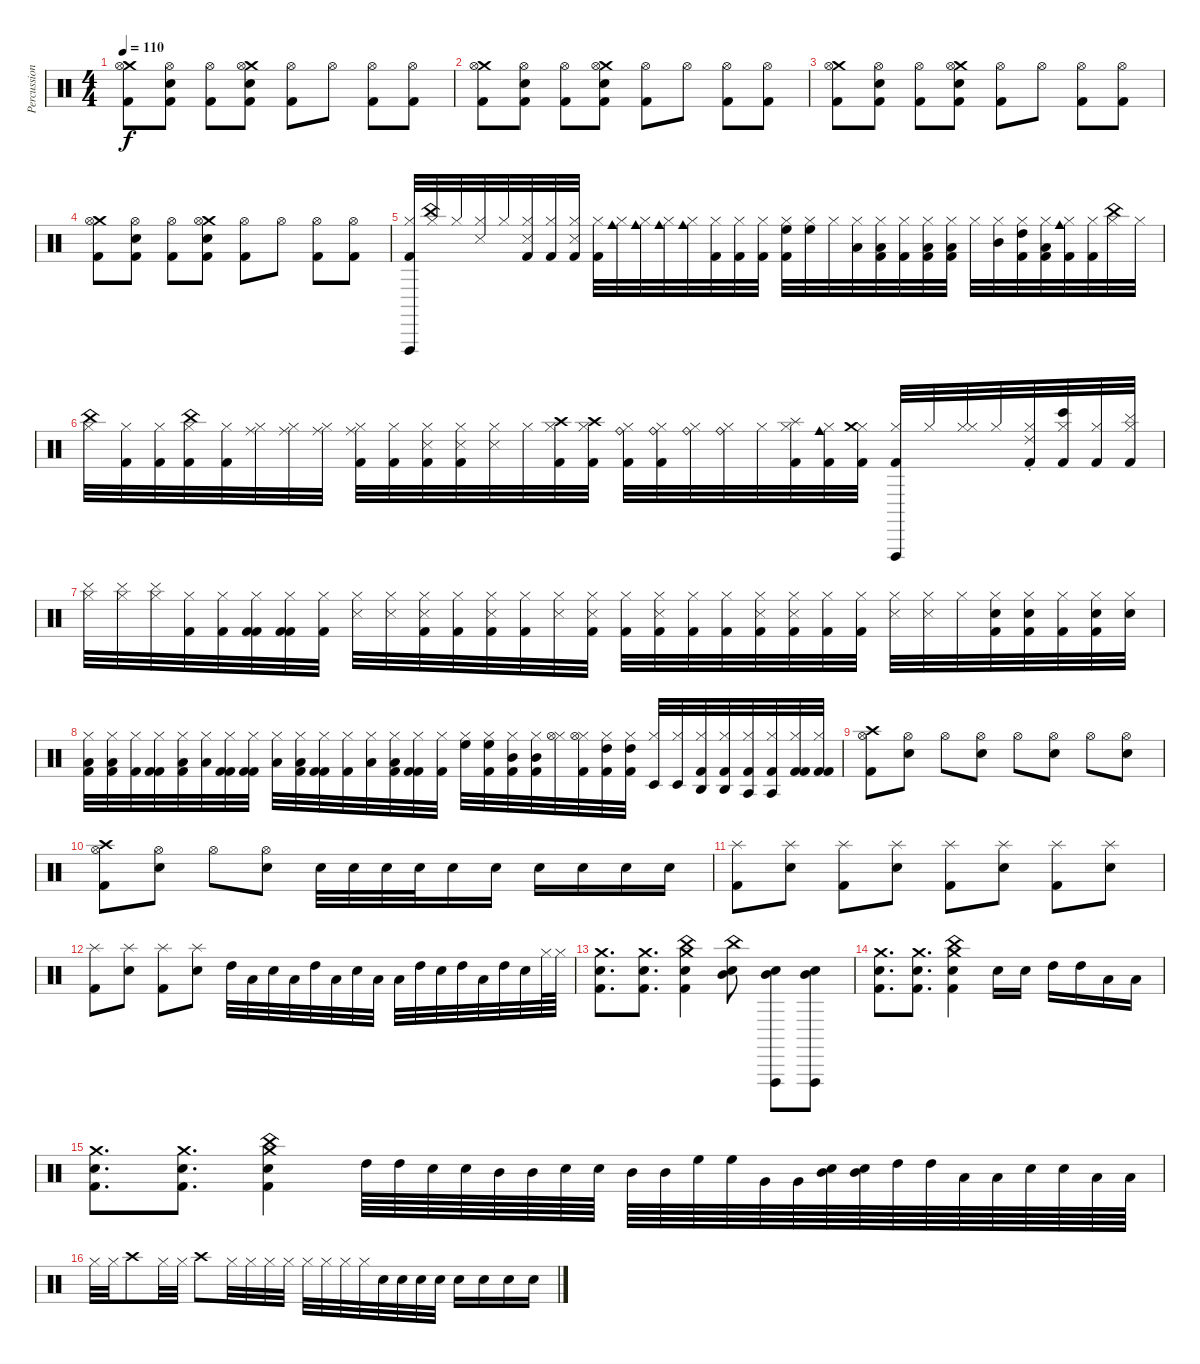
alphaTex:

\track ("Percussion" "Percussion") {instrument percussion}
\staff {score}
\articulation defaults
\ts (4 4)
\tempo 110
\clef neutral
\ks c
("Crash medium (hit)" "Hi-Hat (open)" "Kick (hit) 2").8{dy f} ("Hi-Hat (open)" "Snare (hit) 2" "Kick (hit) 2").8 ("Hi-Hat (open)" "Kick (hit) 2").8 ("Crash medium (hit)" "Hi-Hat (open)" "Snare (hit) 2" "Kick (hit) 2").8 ("Hi-Hat (open)" "Kick (hit) 2").8 "Hi-Hat (open)".8 ("Hi-Hat (open)" "Kick (hit) 2").8 ("Hi-Hat (open)" "Kick (hit) 2").8 |
("Crash medium (hit)" "Hi-Hat (open)" "Kick (hit) 2").8 ("Hi-Hat (open)" "Snare (hit) 2" "Kick (hit) 2").8 ("Hi-Hat (open)" "Kick (hit) 2").8 ("Crash medium (hit)" "Hi-Hat (open)" "Snare (hit) 2" "Kick (hit) 2").8 ("Hi-Hat (open)" "Kick (hit) 2").8 "Hi-Hat (open)".8 ("Hi-Hat (open)" "Kick (hit) 2").8 ("Hi-Hat (open)" "Kick (hit) 2").8 |
("Crash medium (hit)" "Hi-Hat (open)" "Kick (hit) 2").8 ("Hi-Hat (open)" "Snare (hit) 2" "Kick (hit) 2").8 ("Hi-Hat (open)" "Kick (hit) 2").8 ("Crash medium (hit)" "Hi-Hat (open)" "Snare (hit) 2" "Kick (hit) 2").8 ("Hi-Hat (open)" "Kick (hit) 2").8 "Hi-Hat (open)".8 ("Hi-Hat (open)" "Kick (hit) 2").8 ("Hi-Hat (open)" "Kick (hit) 2").8 |
("Crash medium (hit)" "Hi-Hat (open)" "Kick (hit) 2").8 ("Hi-Hat (open)" "Snare (hit) 2" "Kick (hit) 2").8 ("Hi-Hat (open)" "Kick (hit) 2").8 ("Crash medium (hit)" "Hi-Hat (open)" "Snare (hit) 2" "Kick (hit) 2").8 ("Hi-Hat (open)" "Kick (hit) 2").8 "Hi-Hat (open)".8 ("Hi-Hat (open)" "Kick (hit) 2").8 ("Hi-Hat (open)" "Kick (hit) 2").8 |
("Hi-Hat (closed)" "Vibraslap (hit)" "Kick (hit) 2").32 ("Hi-Hat (closed)" "China (hit)").32 "Hi-Hat (closed)".32 ("Hi-Hat (closed)" "Snare (side stick) 3").32 "Hi-Hat (closed)".32 ("Hi-Hat (closed)" "Snare (side stick) 3" "Kick (hit) 2").32 ("Hi-Hat (closed)" "Kick (hit) 2").32 ("Hi-Hat (closed)" "Snare (side stick) 3" "Kick (hit) 2").32 ("Hi-Hat (closed)" "Kick (hit) 2").32 ("Hi-Hat (closed)" "Cowbell medium (hit)").32 ("Hi-Hat (closed)" "Cowbell medium (hit)").32 ("Hi-Hat (closed)" "Cowbell medium (hit)").32 ("Hi-Hat (closed)" "Cowbell medium (hit)").32 ("Hi-Hat (closed)" "Kick (hit) 2").32 ("Hi-Hat (closed)" "Kick (hit) 2").32 ("Hi-Hat (closed)" "Kick (hit) 2").32 ("Hi-Hat (closed)" "High Floor Tom (hit)" "Kick (hit) 2").32 ("Hi-Hat (closed)" "High Floor Tom (hit)").32 "Hi-Hat (closed)".32 ("Hi-Hat (closed)" "Low Tom (hit)").32 ("Hi-Hat (closed)" "Low Tom (hit)" "Kick (hit) 2").32 ("Hi-Hat (closed)" "Kick (hit) 2").32 ("Hi-Hat (closed)" "Low Floor Tom (hit)" "Kick (hit) 2").32 ("Hi-Hat (closed)" "Low Floor Tom (hit)" "Kick (hit) 2").32 "Hi-Hat (closed)".32 ("Hi-Hat (closed)" "Mid Tom (hit)").32 ("Hi-Hat (closed)" "High Tom (hit)" "Kick (hit) 2").32 ("Hi-Hat (closed)" "Low Floor Tom (hit)" "Kick (hit) 2").32 ("Hi-Hat (closed)" "Cowbell medium (hit)" "Kick (hit) 2").32 ("Hi-Hat (closed)" "Kick (hit) 2").32 ("Hi-Hat (closed)" "China (hit)").32 "Hi-Hat (closed)".32 |
("Hi-Hat (closed)" "China (hit)").32 ("Hi-Hat (closed)" "Kick (hit) 2").32 ("Hi-Hat (closed)" "Kick (hit) 2").32 ("Hi-Hat (closed)" "China (hit)" "Kick (hit) 2").32 ("Hi-Hat (closed)" "Kick (hit) 2").32 ("Hi-Hat (closed)" "Ride (middle)").32 ("Hi-Hat (closed)" "Ride (middle)").32 ("Hi-Hat (closed)" "Ride (middle)").32 ("Hi-Hat (closed)" "Ride (middle)" "Kick (hit) 2").32 ("Hi-Hat (closed)" "Kick (hit) 2").32 ("Hi-Hat (closed)" "Metronome (hit)" "Kick (hit) 2").32 ("Hi-Hat (closed)" "Metronome (hit)" "Kick (hit) 2").32 ("Hi-Hat (closed)" "Metronome (hit)").32 "Hi-Hat (closed)".32 ("Hi-Hat (closed)" "Crash high (hit)" "Kick (hit) 2").32 ("Hi-Hat (closed)" "Crash high (hit)" "Kick (hit) 2").32 ("Hi-Hat (closed)" "Ride (bell)" "Kick (hit) 2").32 ("Hi-Hat (closed)" "Ride (bell)" "Kick (hit) 2").32 ("Hi-Hat (closed)" "Ride (bell)").32 ("Hi-Hat (closed)" "Ride (bell)").32 "Hi-Hat (closed)".32 ("Hi-Hat (closed)" "Splash (hit)" "Kick (hit) 2").32 ("Hi-Hat (closed)" "Cowbell medium (hit)" "Kick (hit) 2").32 ("Hi-Hat (closed)" "Crash medium (hit)" "Kick (hit) 2").32 ("Hi-Hat (closed)" "Vibraslap (hit)" "Kick (hit) 2").32 "Hi-Hat (closed)".32 ("Hi-Hat (closed)" "Hi-Hat (closed)").32 "Hi-Hat (closed)".32 ("Hi-Hat (closed)" "Ride (choke) 2" "Kick (hit) 2").32 ("Hi-Hat (closed)" "Bongo High (hit)" "Kick (hit) 2").32 ("Hi-Hat (closed)" "Kick (hit) 2").32 ("Hi-Hat (closed)" "Cymbal (hit)" "Kick (hit) 2").32 |
("Hi-Hat (closed)" "Cymbal (hit)").32 ("Hi-Hat (closed)" "Cymbal (hit)").32 ("Hi-Hat (closed)" "Cymbal (hit)").32 ("Hi-Hat (closed)" "Kick (hit) 2").32 ("Hi-Hat (closed)" "Kick (hit) 2").32 ("Hi-Hat (closed)" "Kick (hit) 2" "Kick (hit) 2").32 ("Hi-Hat (closed)" "Kick (hit) 2" "Kick (hit) 2").32 ("Hi-Hat (closed)" "Kick (hit) 2").32 ("Hi-Hat (closed)" "Snare (side stick) 3").32 ("Hi-Hat (closed)" "Snare (side stick) 3").32 ("Hi-Hat (closed)" "Snare (side stick) 3" "Kick (hit) 2").32 ("Hi-Hat (closed)" "Kick (hit) 2").32 ("Hi-Hat (closed)" "Snare (side stick) 3" "Kick (hit) 2").32 ("Hi-Hat (closed)" "Kick (hit) 2").32 ("Hi-Hat (closed)" "Snare (side stick) 3").32 ("Hi-Hat (closed)" "Snare (side stick) 3" "Kick (hit) 2").32 ("Hi-Hat (closed)" "Kick (hit) 2").32 ("Hi-Hat (closed)" "Snare (side stick) 3" "Kick (hit) 2").32 ("Hi-Hat (closed)" "Kick (hit) 2").32 ("Hi-Hat (closed)" "Kick (hit) 2").32 ("Hi-Hat (closed)" "Snare (side stick) 3" "Kick (hit) 2").32 ("Hi-Hat (closed)" "Snare (side stick) 3" "Kick (hit) 2").32 ("Hi-Hat (closed)" "Kick (hit) 2").32 ("Hi-Hat (closed)" "Kick (hit) 2").32 ("Hi-Hat (closed)" "Snare (side stick) 3").32 ("Hi-Hat (closed)" "Snare (side stick) 3").32 "Hi-Hat (closed)".32 ("Hi-Hat (closed)" "Hand Clap (hit)" "Kick (hit) 2").32 ("Hi-Hat (closed)" "Hand Clap (hit)" "Kick (hit) 2").32 ("Hi-Hat (closed)" "Kick (hit) 2").32 ("Hi-Hat (closed)" "Hand Clap (hit)" "Kick (hit) 2").32 ("Hi-Hat (closed)" "Hand Clap (hit)").32 |
("Hi-Hat (closed)" "Low Tom (hit)" "Kick (hit) 2").32 ("Hi-Hat (closed)" "Low Tom (hit)" "Kick (hit) 2").32 ("Hi-Hat (closed)" "Kick (hit) 2").32 ("Hi-Hat (closed)" "Kick (hit) 2" "Kick (hit) 2").32 ("Hi-Hat (closed)" "Low Tom (hit)" "Kick (hit) 2").32 ("Hi-Hat (closed)" "Low Tom (hit)").32 ("Hi-Hat (closed)" "Kick (hit) 2" "Kick (hit) 2").32 ("Hi-Hat (closed)" "Kick (hit) 2" "Kick (hit) 2").32 ("Hi-Hat (closed)" "Low Tom (hit)").32 ("Hi-Hat (closed)" "Low Tom (hit)" "Kick (hit) 2").32 ("Hi-Hat (closed)" "Kick (hit) 2" "Kick (hit) 2").32 ("Hi-Hat (closed)" "Kick (hit) 2").32 ("Hi-Hat (closed)" "Low Tom (hit)").32 ("Hi-Hat (closed)" "Low Tom (hit)" "Kick (hit) 2").32 ("Hi-Hat (closed)" "Kick (hit) 2" "Kick (hit) 2").32 ("Hi-Hat (closed)" "Kick (hit) 2").32 ("Hi-Hat (closed)" "High Floor Tom (hit)").32 ("Hi-Hat (closed)" "High Floor Tom (hit)" "Kick (hit) 2").32 ("Hi-Hat (closed)" "Mid Tom (hit)" "Kick (hit) 2").32 ("Hi-Hat (closed)" "Mid Tom (hit)" "Kick (hit) 2").32 ("Hi-Hat (closed)" "Hi-Hat (open)").32 ("Hi-Hat (closed)" "Hi-Hat (open)" "Kick (hit) 2").32 ("Hi-Hat (closed)" "High Tom (hit)" "Kick (hit) 2").32 ("Hi-Hat (closed)" "High Tom (hit)" "Kick (hit) 2").32 ("Hi-Hat (closed)" "Timbale low (hit)").32 ("Hi-Hat (closed)" "Timbale low (hit)").32 ("Hi-Hat (closed)" "Agogo high (hit)" "Kick (hit) 2").32 ("Hi-Hat (closed)" "Agogo high (hit)" "Kick (hit) 2").32 ("Hi-Hat (closed)" "Agogo tow (hit)" "Kick (hit) 2").32 ("Hi-Hat (closed)" "Agogo tow (hit)" "Kick (hit) 2").32 ("Hi-Hat (closed)" "Kick (hit) 2" "Kick (hit) 2").32 ("Hi-Hat (closed)" "Kick (hit) 2" "Kick (hit) 2").32 |
("Hi-Hat (open)" "Crash high (hit)" "Kick (hit) 2").8 ("Hi-Hat (open)" "Snare (hit) 2").8 "Hi-Hat (open)".8 ("Hi-Hat (open)" "Snare (hit) 2").8 "Hi-Hat (open)".8 ("Hi-Hat (open)" "Snare (hit) 2").8 "Hi-Hat (open)".8 ("Hi-Hat (open)" "Snare (hit) 2").8 |
("Hi-Hat (open)" "Crash high (hit)" "Kick (hit) 2").8 ("Hi-Hat (open)" "Snare (hit) 2").8 "Hi-Hat (open)".8 ("Hi-Hat (open)" "Snare (hit) 2").8 "Snare (hit) 2".32 "Snare (hit) 2".32 "Snare (hit) 2".32 "Snare (hit) 2".32 "Snare (hit) 2".16 "Snare (hit) 2".16 "Snare (hit) 2".16 "Snare (hit) 2".16 "Snare (hit) 2".16 "Snare (hit) 2".16 |
("Splash (hit)" "Kick (hit) 2").8 ("Splash (hit)" "Snare (hit) 2").8 ("Splash (hit)" "Kick (hit) 2").8 ("Splash (hit)" "Snare (hit) 2").8 ("Splash (hit)" "Kick (hit) 2").8 ("Splash (hit)" "Snare (hit) 2").8 ("Splash (hit)" "Kick (hit) 2").8 ("Splash (hit)" "Snare (hit) 2").8 |
("Splash (hit)" "Kick (hit) 2").8 ("Splash (hit)" "Snare (hit) 2").8 ("Splash (hit)" "Kick (hit) 2").8 ("Splash (hit)" "Snare (hit) 2").8 "High Tom (hit)".32 "Low Tom (hit)".32 "Snare (hit) 2".32 "Low Tom (hit)".32 "High Tom (hit)".32 "Low Tom (hit)".32 "Snare (hit) 2".32 "Low Tom (hit)".32 "Low Tom (hit)".32 "High Tom (hit)".32 "Snare (hit) 2".32 "High Tom (hit)".32 "Low Tom (hit)".32 "High Tom (hit)".32 "Snare (hit) 2".32 "Hi-Hat (closed)".64 "Hi-Hat (closed)".64 |
("Crash medium (hit)" "Snare (hit) 2" "Kick (hit) 2").8{d} ("Crash medium (hit)" "Snare (hit) 2" "Kick (hit) 2").8{d} ("Crash medium (hit)" "China (hit)" "Snare (hit) 2" "Kick (hit) 2").4 ("China (hit)" "Snare (hit) 2" "Mid Tom (hit)").8 ("Vibraslap (hit)" "Snare (hit) 2" "Mid Tom (hit)").8 ("Vibraslap (hit)" "Snare (hit) 2" "Mid Tom (hit)").8 |
("Crash medium (hit)" "Snare (hit) 2" "Kick (hit) 2").8{d} ("Crash medium (hit)" "Snare (hit) 2" "Kick (hit) 2").8{d} ("Crash medium (hit)" "China (hit)" "Snare (hit) 2" "Kick (hit) 2").4 "Snare (hit) 2".16 "Snare (hit) 2".16 "High Tom (hit)".16 "High Tom (hit)".16 "Low Floor Tom (hit)".16 "Low Floor Tom (hit)".16 |
("Crash medium (hit)" "Snare (hit) 2" "Kick (hit) 2").8{d} ("Crash medium (hit)" "Snare (hit) 2" "Kick (hit) 2").8{d} ("Crash medium (hit)" "China (hit)" "Snare (hit) 2" "Kick (hit) 2").4 "High Tom (hit)".64 "High Tom (hit)".64 "Snare (hit) 2".64 "Snare (hit) 2".64 "Mid Tom (hit)".64 "Mid Tom (hit)".64 "Snare (hit) 2".64 "Snare (hit) 2".64 "Mid Tom (hit)".64 "Mid Tom (hit)".64 "High Floor Tom (hit)".64 "High Floor Tom (hit)".64 "Very Low Tom (hit)".64 "Very Low Tom (hit)".64 ("Snare (hit) 2" "Mid Tom (hit)").64 ("Snare (hit) 2" "Mid Tom (hit)").64 "High Tom (hit)".64 "High Tom (hit)".64 "Low Tom (hit)".64 "Low Tom (hit)".64 "Snare (hit) 2".64 "Snare (hit) 2".64 "Low Floor Tom (hit)".64 "Low Floor Tom (hit)".64 |
"Hi-Hat (closed)".32 "Hi-Hat (closed)".32 "Crash high (hit)".8 "Hi-Hat (closed)".32 "Hi-Hat (closed)".32 "Crash high (hit)".8 "Hi-Hat (closed)".32 "Hi-Hat (closed)".32 "Hi-Hat (closed)".32 "Hi-Hat (closed)".32 "Hi-Hat (closed)".32 "Hi-Hat (closed)".32 "Hi-Hat (closed)".32 "Hi-Hat (closed)".32 "Snare (hit) 2".32 "Snare (hit) 2".32 "Snare (hit) 2".32 "Snare (hit) 2".32 "Snare (hit) 2".16 "Snare (hit) 2".16 "Snare (hit) 2".16 "Snare (hit) 2".16
